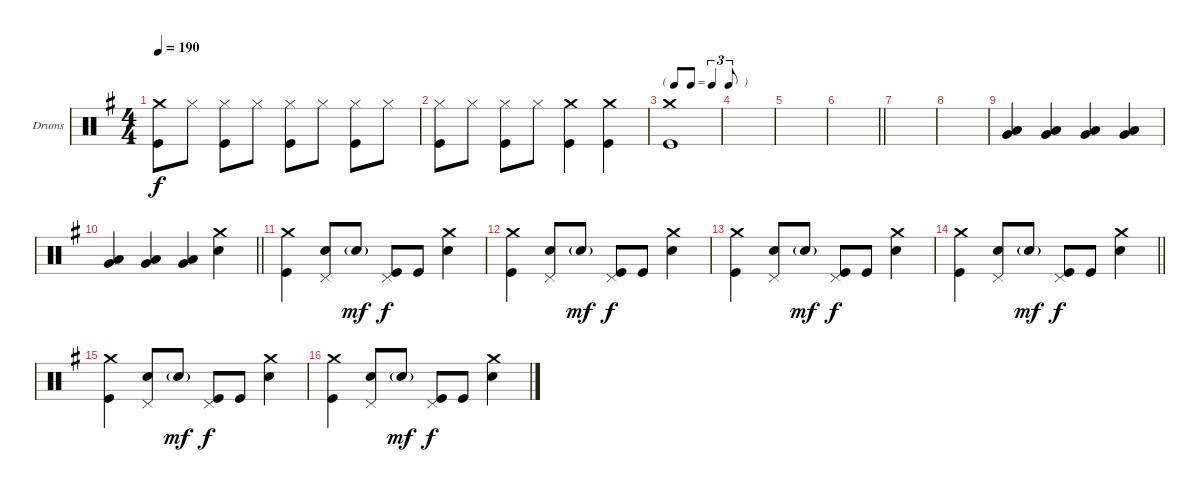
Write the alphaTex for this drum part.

\bracketExtendMode groupsimilarinstruments
\firstSystemTrackNameOrientation horizontal
\otherSystemsTrackNameOrientation horizontal
\track ("Drums" "Drums") {instrument percussion}
\staff {score}
\articulation defaults
\ts (4 4)
\tempo 190
\clef neutral
\ks g
("Crash medium (hit)" "Kick (hit)").8{dy f} "Hi-Hat (closed)".8 ("Hi-Hat (closed)" "Kick (hit)").8 "Hi-Hat (closed)".8 ("Hi-Hat (closed)" "Kick (hit)").8 "Hi-Hat (closed)".8 ("Hi-Hat (closed)" "Kick (hit)").8 "Hi-Hat (closed)".8 |
("Hi-Hat (closed)" "Kick (hit)").8 "Hi-Hat (closed)".8 ("Hi-Hat (closed)" "Kick (hit)").8 "Hi-Hat (closed)".8 ("Crash medium (hit)" "Kick (hit)").4 ("Crash medium (hit)" "Kick (hit)").4 |
\tf triplet8th
("Crash medium (hit)" "Kick (hit)").1 |
|
|
\barLineRight lightlight
|
|
|
("Low Tom (hit)" "Very Low Tom (hit)").4 ("Low Tom (hit)" "Very Low Tom (hit)").4 ("Low Tom (hit)" "Very Low Tom (hit)").4 ("Low Tom (hit)" "Very Low Tom (hit)").4 |
\barLineRight lightlight
("Low Tom (hit)" "Very Low Tom (hit)").4 ("Low Tom (hit)" "Very Low Tom (hit)").4 ("Low Tom (hit)" "Very Low Tom (hit)").4 ("Crash medium (hit)" "Snare (hit) 2").4 |
("Crash medium (hit)" "Kick (hit)").4 ("Pedal Hi-Hat (hit)" "Snare (hit) 2").8 "Snare (hit) 2"{g}.8{dy mf} ("Pedal Hi-Hat (hit)" "Kick (hit)").8{dy f} "Kick (hit)".8 ("Crash medium (hit)" "Snare (hit) 2").4 |
("Crash medium (hit)" "Kick (hit)").4 ("Pedal Hi-Hat (hit)" "Snare (hit) 2").8 "Snare (hit) 2"{g}.8{dy mf} ("Pedal Hi-Hat (hit)" "Kick (hit)").8{dy f} "Kick (hit)".8 ("Crash medium (hit)" "Snare (hit) 2").4 |
("Crash medium (hit)" "Kick (hit)").4 ("Pedal Hi-Hat (hit)" "Snare (hit) 2").8 "Snare (hit) 2"{g}.8{dy mf} ("Pedal Hi-Hat (hit)" "Kick (hit)").8{dy f} "Kick (hit)".8 ("Crash medium (hit)" "Snare (hit) 2").4 |
\barLineRight lightlight
("Crash medium (hit)" "Kick (hit)").4 ("Pedal Hi-Hat (hit)" "Snare (hit) 2").8 "Snare (hit) 2"{g}.8{dy mf} ("Pedal Hi-Hat (hit)" "Kick (hit)").8{dy f} "Kick (hit)".8 ("Crash medium (hit)" "Snare (hit) 2").4 |
("Crash medium (hit)" "Kick (hit)").4 ("Pedal Hi-Hat (hit)" "Snare (hit) 2").8 "Snare (hit) 2"{g}.8{dy mf} ("Pedal Hi-Hat (hit)" "Kick (hit)").8{dy f} "Kick (hit)".8 ("Crash medium (hit)" "Snare (hit) 2").4 |
("Crash medium (hit)" "Kick (hit)").4 ("Pedal Hi-Hat (hit)" "Snare (hit) 2").8 "Snare (hit) 2"{g}.8{dy mf} ("Pedal Hi-Hat (hit)" "Kick (hit)").8{dy f} "Kick (hit)".8 ("Crash medium (hit)" "Snare (hit) 2").4
